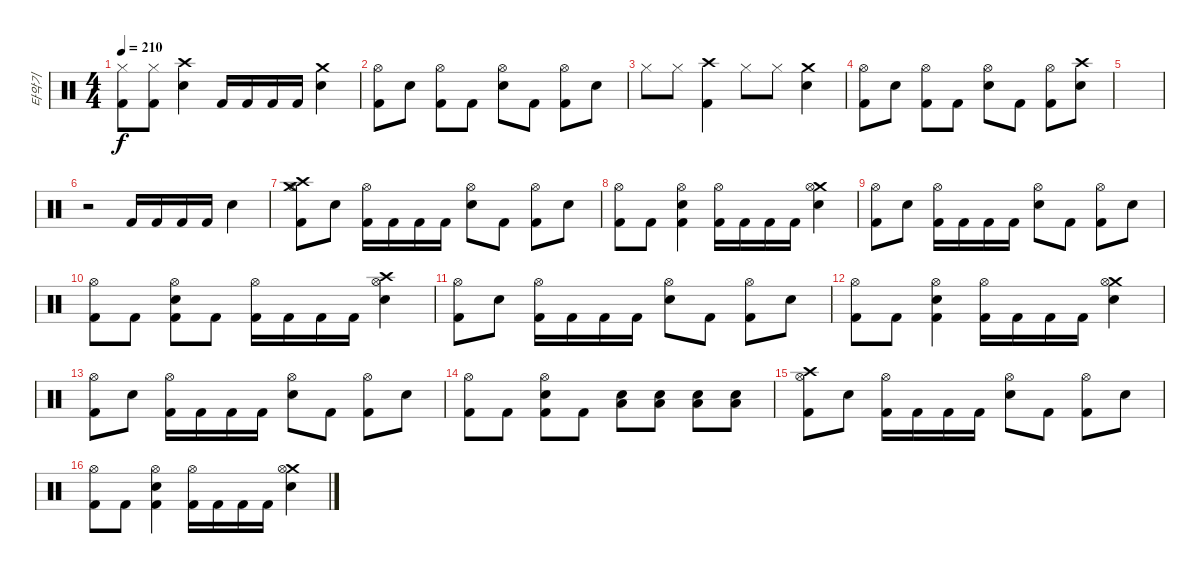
\track ("타악기" "타악기") {instrument percussion}
\staff {score}
\articulation defaults
\ts (4 4)
\tempo 210
\clef neutral
\ks c
("Hi-Hat (closed)" "Kick (hit) 2").8{dy f} ("Hi-Hat (closed)" "Kick (hit) 2").8 ("Crash high (hit)" "Snare (hit) 2").4 "Kick (hit) 2".16 "Kick (hit) 2".16 "Kick (hit) 2".16 "Kick (hit) 2".16 ("Crash medium (hit)" "Snare (hit) 2").4 |
("Hi-Hat (open)" "Kick (hit) 2").8 "Snare (hit) 2".8 ("Hi-Hat (open)" "Kick (hit) 2").8 "Kick (hit) 2".8 ("Hi-Hat (open)" "Snare (hit) 2").8 "Kick (hit) 2".8 ("Hi-Hat (open)" "Kick (hit) 2").8 "Snare (hit) 2".8 |
"Hi-Hat (closed)".8 "Hi-Hat (closed)".8 ("Crash high (hit)" "Kick (hit) 2").4 "Hi-Hat (closed)".8 "Hi-Hat (closed)".8 ("Crash medium (hit)" "Snare (hit) 2").4 |
("Hi-Hat (open)" "Kick (hit) 2").8 "Snare (hit) 2".8 ("Hi-Hat (open)" "Kick (hit) 2").8 "Kick (hit) 2".8 ("Hi-Hat (open)" "Snare (hit) 2").8 "Kick (hit) 2".8 ("Hi-Hat (open)" "Kick (hit) 2").8 ("Crash high (hit)" "Snare (hit) 2").8 |
|
r.2 "Kick (hit) 2".16 "Kick (hit) 2".16 "Kick (hit) 2".16 "Kick (hit) 2".16 "Snare (hit) 2".4 |
("Crash high (hit)" "Crash medium (hit)" "Hi-Hat (open)" "Kick (hit) 2").8 "Snare (hit) 2".8 ("Hi-Hat (open)" "Kick (hit) 2").16 "Kick (hit) 2".16 "Kick (hit) 2".16 "Kick (hit) 2".16 ("Hi-Hat (open)" "Snare (hit) 2").8 "Kick (hit) 2".8 ("Hi-Hat (open)" "Kick (hit) 2").8 "Snare (hit) 2".8 |
("Hi-Hat (open)" "Kick (hit) 2").8 "Kick (hit) 2".8 ("Hi-Hat (open)" "Snare (hit) 2" "Kick (hit) 2").4 ("Hi-Hat (open)" "Kick (hit) 2").16 "Kick (hit) 2".16 "Kick (hit) 2".16 "Kick (hit) 2".16 ("Crash medium (hit)" "Hi-Hat (open)" "Snare (hit) 2").4 |
("Hi-Hat (open)" "Kick (hit) 2").8 "Snare (hit) 2".8 ("Hi-Hat (open)" "Kick (hit) 2").16 "Kick (hit) 2".16 "Kick (hit) 2".16 "Kick (hit) 2".16 ("Hi-Hat (open)" "Snare (hit) 2").8 "Kick (hit) 2".8 ("Hi-Hat (open)" "Kick (hit) 2").8 "Snare (hit) 2".8 |
("Hi-Hat (open)" "Kick (hit) 2").8 "Kick (hit) 2".8 ("Hi-Hat (open)" "Snare (hit) 2" "Kick (hit) 2").8 "Kick (hit) 2".8 ("Hi-Hat (open)" "Kick (hit) 2").16 "Kick (hit) 2".16 "Kick (hit) 2".16 "Kick (hit) 2".16 ("Crash high (hit)" "Hi-Hat (open)" "Snare (hit) 2").4 |
("Hi-Hat (open)" "Kick (hit) 2").8 "Snare (hit) 2".8 ("Hi-Hat (open)" "Kick (hit) 2").16 "Kick (hit) 2".16 "Kick (hit) 2".16 "Kick (hit) 2".16 ("Hi-Hat (open)" "Snare (hit) 2").8 "Kick (hit) 2".8 ("Hi-Hat (open)" "Kick (hit) 2").8 "Snare (hit) 2".8 |
("Hi-Hat (open)" "Kick (hit) 2").8 "Kick (hit) 2".8 ("Hi-Hat (open)" "Snare (hit) 2" "Kick (hit) 2").4 ("Hi-Hat (open)" "Kick (hit) 2").16 "Kick (hit) 2".16 "Kick (hit) 2".16 "Kick (hit) 2".16 ("Crash medium (hit)" "Hi-Hat (open)" "Snare (hit) 2").4 |
("Hi-Hat (open)" "Kick (hit) 2").8 "Snare (hit) 2".8 ("Hi-Hat (open)" "Kick (hit) 2").16 "Kick (hit) 2".16 "Kick (hit) 2".16 "Kick (hit) 2".16 ("Hi-Hat (open)" "Snare (hit) 2").8 "Kick (hit) 2".8 ("Hi-Hat (open)" "Kick (hit) 2").8 "Snare (hit) 2".8 |
("Hi-Hat (open)" "Kick (hit) 2").8 "Kick (hit) 2".8 ("Hi-Hat (open)" "Snare (hit) 2" "Kick (hit) 2").8 "Kick (hit) 2".8 ("Low Tom (hit)" "Snare (hit) 2").8 ("Low Tom (hit)" "Snare (hit) 2").8 ("Low Tom (hit)" "Snare (hit) 2").8 ("Low Tom (hit)" "Snare (hit) 2").8 |
("Crash high (hit)" "Hi-Hat (open)" "Kick (hit) 2").8 "Snare (hit) 2".8 ("Hi-Hat (open)" "Kick (hit) 2").16 "Kick (hit) 2".16 "Kick (hit) 2".16 "Kick (hit) 2".16 ("Hi-Hat (open)" "Snare (hit) 2").8 "Kick (hit) 2".8 ("Hi-Hat (open)" "Kick (hit) 2").8 "Snare (hit) 2".8 |
("Hi-Hat (open)" "Kick (hit) 2").8 "Kick (hit) 2".8 ("Hi-Hat (open)" "Snare (hit) 2" "Kick (hit) 2").4 ("Hi-Hat (open)" "Kick (hit) 2").16 "Kick (hit) 2".16 "Kick (hit) 2".16 "Kick (hit) 2".16 ("Crash medium (hit)" "Hi-Hat (open)" "Snare (hit) 2").4
